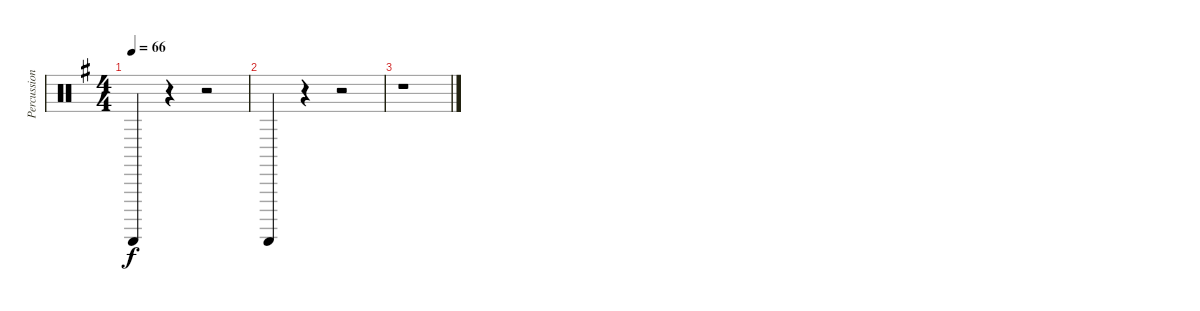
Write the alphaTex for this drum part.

\track ("Percussion" "Percussion") {instrument percussion}
\staff {score}
\articulation defaults
\ts (4 4)
\tempo 66
\clef neutral
\ks g "Guiro (scrap-return)".4{dy f}
r.4 r.2 |
"Guiro (scrap-return)".4 r.4 r.2 |
r.1
